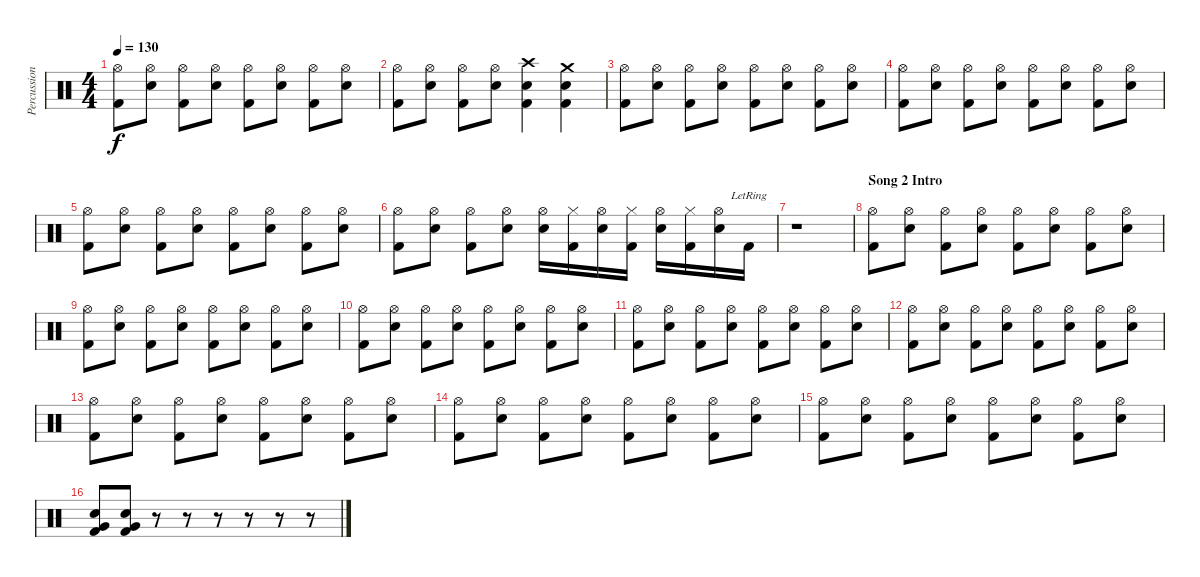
\track ("Percussion" "Percussion") {instrument percussion}
\staff {score}
\articulation defaults
\ts (4 4)
\tempo 130
\clef neutral
\ks c
("Hi-Hat (open)" "Kick (hit) 2").8{dy f} ("Hi-Hat (open)" "Electric Snare (hit)").8 ("Hi-Hat (open)" "Kick (hit) 2").8 ("Hi-Hat (open)" "Electric Snare (hit)").8 ("Hi-Hat (open)" "Kick (hit) 2").8 ("Hi-Hat (open)" "Electric Snare (hit)").8 ("Hi-Hat (open)" "Kick (hit) 2").8 ("Hi-Hat (open)" "Electric Snare (hit)").8 |
("Hi-Hat (open)" "Kick (hit) 2").8 ("Hi-Hat (open)" "Electric Snare (hit)").8 ("Hi-Hat (open)" "Kick (hit) 2").8 ("Hi-Hat (open)" "Electric Snare (hit)").8 ("Crash high (hit)" "Electric Snare (hit)" "Kick (hit) 2").4 ("Crash medium (hit)" "Electric Snare (hit)" "Kick (hit) 2").4 |
("Hi-Hat (open)" "Kick (hit) 2").8 ("Hi-Hat (open)" "Electric Snare (hit)").8 ("Hi-Hat (open)" "Kick (hit) 2").8 ("Hi-Hat (open)" "Electric Snare (hit)").8 ("Hi-Hat (open)" "Kick (hit) 2").8 ("Hi-Hat (open)" "Electric Snare (hit)").8 ("Hi-Hat (open)" "Kick (hit) 2").8 ("Hi-Hat (open)" "Electric Snare (hit)").8 |
("Hi-Hat (open)" "Kick (hit) 2").8 ("Hi-Hat (open)" "Electric Snare (hit)").8 ("Hi-Hat (open)" "Kick (hit) 2").8 ("Hi-Hat (open)" "Electric Snare (hit)").8 ("Hi-Hat (open)" "Kick (hit) 2").8 ("Hi-Hat (open)" "Electric Snare (hit)").8 ("Hi-Hat (open)" "Kick (hit) 2").8 ("Hi-Hat (open)" "Electric Snare (hit)").8 |
("Hi-Hat (open)" "Kick (hit) 2").8 ("Hi-Hat (open)" "Electric Snare (hit)").8 ("Hi-Hat (open)" "Kick (hit) 2").8 ("Hi-Hat (open)" "Electric Snare (hit)").8 ("Hi-Hat (open)" "Kick (hit) 2").8 ("Hi-Hat (open)" "Electric Snare (hit)").8 ("Hi-Hat (open)" "Kick (hit) 2").8 ("Hi-Hat (open)" "Electric Snare (hit)").8 |
("Hi-Hat (open)" "Kick (hit) 2").8 ("Hi-Hat (open)" "Electric Snare (hit)").8 ("Hi-Hat (open)" "Kick (hit) 2").8 ("Hi-Hat (open)" "Electric Snare (hit)").8 ("Hi-Hat (open)" "Electric Snare (hit)").16 ("Hi-Hat (closed)" "Kick (hit) 2").16 ("Hi-Hat (open)" "Electric Snare (hit)").16 ("Hi-Hat (closed)" "Kick (hit) 2").16 ("Hi-Hat (open)" "Electric Snare (hit)").16 ("Hi-Hat (closed)" "Kick (hit) 2").16 ("Hi-Hat (open)" "Electric Snare (hit)").16 "Kick (hit) 2"{lr}.16 |
r.1 |
\section ("" "Song 2 Intro")
("Hi-Hat (open)" "Kick (hit) 2").8 ("Hi-Hat (open)" "Electric Snare (hit)").8 ("Hi-Hat (open)" "Kick (hit) 2").8 ("Hi-Hat (open)" "Electric Snare (hit)").8 ("Hi-Hat (open)" "Kick (hit) 2").8 ("Hi-Hat (open)" "Electric Snare (hit)").8 ("Hi-Hat (open)" "Kick (hit) 2").8 ("Hi-Hat (open)" "Electric Snare (hit)").8 |
("Hi-Hat (open)" "Kick (hit) 2").8 ("Hi-Hat (open)" "Electric Snare (hit)").8 ("Hi-Hat (open)" "Kick (hit) 2").8 ("Hi-Hat (open)" "Electric Snare (hit)").8 ("Hi-Hat (open)" "Kick (hit) 2").8 ("Hi-Hat (open)" "Electric Snare (hit)").8 ("Hi-Hat (open)" "Kick (hit) 2").8 ("Hi-Hat (open)" "Electric Snare (hit)").8 |
("Hi-Hat (open)" "Kick (hit) 2").8 ("Hi-Hat (open)" "Electric Snare (hit)").8 ("Hi-Hat (open)" "Kick (hit) 2").8 ("Hi-Hat (open)" "Electric Snare (hit)").8 ("Hi-Hat (open)" "Kick (hit) 2").8 ("Hi-Hat (open)" "Electric Snare (hit)").8 ("Hi-Hat (open)" "Kick (hit) 2").8 ("Hi-Hat (open)" "Electric Snare (hit)").8 |
("Hi-Hat (open)" "Kick (hit) 2").8 ("Hi-Hat (open)" "Electric Snare (hit)").8 ("Hi-Hat (open)" "Kick (hit) 2").8 ("Hi-Hat (open)" "Electric Snare (hit)").8 ("Hi-Hat (open)" "Kick (hit) 2").8 ("Hi-Hat (open)" "Electric Snare (hit)").8 ("Hi-Hat (open)" "Kick (hit) 2").8 ("Hi-Hat (open)" "Electric Snare (hit)").8 |
("Hi-Hat (open)" "Kick (hit) 2").8 ("Hi-Hat (open)" "Electric Snare (hit)").8 ("Hi-Hat (open)" "Kick (hit) 2").8 ("Hi-Hat (open)" "Electric Snare (hit)").8 ("Hi-Hat (open)" "Kick (hit) 2").8 ("Hi-Hat (open)" "Electric Snare (hit)").8 ("Hi-Hat (open)" "Kick (hit) 2").8 ("Hi-Hat (open)" "Electric Snare (hit)").8 |
("Hi-Hat (open)" "Kick (hit) 2").8 ("Hi-Hat (open)" "Electric Snare (hit)").8 ("Hi-Hat (open)" "Kick (hit) 2").8 ("Hi-Hat (open)" "Electric Snare (hit)").8 ("Hi-Hat (open)" "Kick (hit) 2").8 ("Hi-Hat (open)" "Electric Snare (hit)").8 ("Hi-Hat (open)" "Kick (hit) 2").8 ("Hi-Hat (open)" "Electric Snare (hit)").8 |
("Hi-Hat (open)" "Kick (hit) 2").8 ("Hi-Hat (open)" "Electric Snare (hit)").8 ("Hi-Hat (open)" "Kick (hit) 2").8 ("Hi-Hat (open)" "Electric Snare (hit)").8 ("Hi-Hat (open)" "Kick (hit) 2").8 ("Hi-Hat (open)" "Electric Snare (hit)").8 ("Hi-Hat (open)" "Kick (hit) 2").8 ("Hi-Hat (open)" "Electric Snare (hit)").8 |
("Hi-Hat (open)" "Kick (hit) 2").8 ("Hi-Hat (open)" "Electric Snare (hit)").8 ("Hi-Hat (open)" "Kick (hit) 2").8 ("Hi-Hat (open)" "Electric Snare (hit)").8 ("Hi-Hat (open)" "Kick (hit) 2").8 ("Hi-Hat (open)" "Electric Snare (hit)").8 ("Hi-Hat (open)" "Kick (hit) 2").8 ("Hi-Hat (open)" "Electric Snare (hit)").8 |
("Very Low Tom (hit)" "Electric Snare (hit)" "Kick (hit) 2").8 ("Very Low Tom (hit)" "Electric Snare (hit)" "Kick (hit) 2").8 r.8 r.8 r.8 r.8 r.8 r.8
